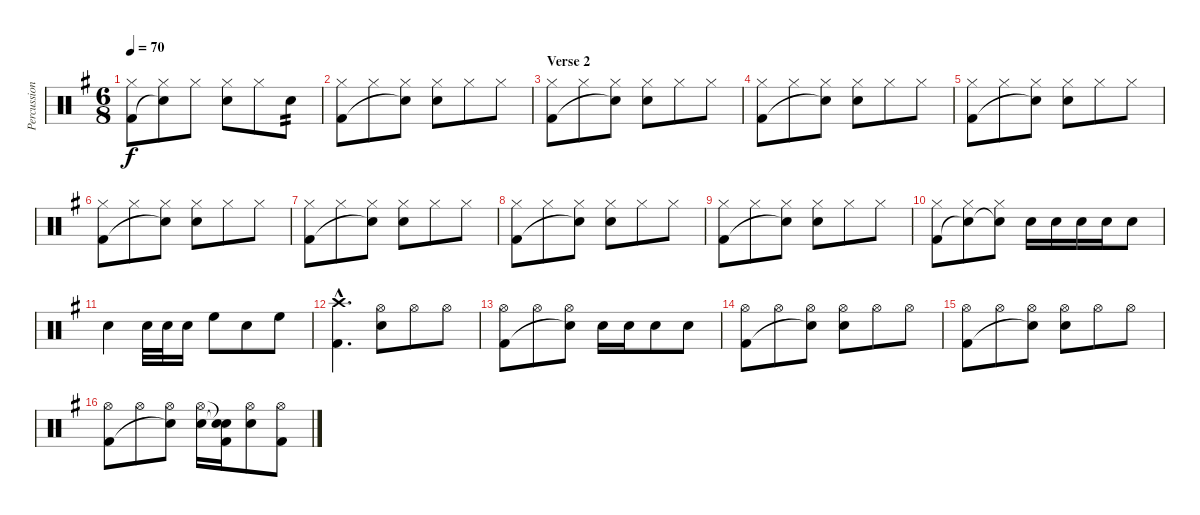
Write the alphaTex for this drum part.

\track ("Percussion" "Percussion") {instrument percussion}
\staff {score}
\articulation defaults
\ts (6 8)
\tempo 70
\clef neutral
\ks g
("Hi-Hat (closed)" "Kick (hit) 2").8{dy f} ("Hi-Hat (closed)" "Snare (hit)"{t}).8 "Hi-Hat (closed)".8 ("Hi-Hat (closed)" "Snare (hit) 2").8 "Hi-Hat (closed)".8 "Snare (hit) 2".8{tp 2} |
("Hi-Hat (closed)" "Kick (hit) 2").8 "Hi-Hat (closed)".8 ("Hi-Hat (closed)" "Snare (hit)"{t}).8 ("Hi-Hat (closed)" "Snare (hit) 2").8 "Hi-Hat (closed)".8 "Hi-Hat (closed)".8 |
\section ("" "Verse 2")
("Hi-Hat (closed)" "Kick (hit) 2").8 "Hi-Hat (closed)".8 ("Hi-Hat (closed)" "Snare (hit)"{t}).8 ("Hi-Hat (closed)" "Snare (hit) 2").8 "Hi-Hat (closed)".8 "Hi-Hat (closed)".8 |
("Hi-Hat (closed)" "Kick (hit) 2").8 "Hi-Hat (closed)".8 ("Hi-Hat (closed)" "Snare (hit)"{t}).8 ("Hi-Hat (closed)" "Snare (hit) 2").8 "Hi-Hat (closed)".8 "Hi-Hat (closed)".8 |
("Hi-Hat (closed)" "Kick (hit) 2").8 "Hi-Hat (closed)".8 ("Hi-Hat (closed)" "Snare (hit)"{t}).8 ("Hi-Hat (closed)" "Snare (hit) 2").8 "Hi-Hat (closed)".8 "Hi-Hat (closed)".8 |
("Hi-Hat (closed)" "Kick (hit) 2").8 "Hi-Hat (closed)".8 ("Hi-Hat (closed)" "Snare (hit)"{t}).8 ("Hi-Hat (closed)" "Snare (hit) 2").8 "Hi-Hat (closed)".8 "Hi-Hat (closed)".8 |
("Hi-Hat (closed)" "Kick (hit) 2").8 "Hi-Hat (closed)".8 ("Hi-Hat (closed)" "Snare (hit)"{t}).8 ("Hi-Hat (closed)" "Snare (hit) 2").8 "Hi-Hat (closed)".8 "Hi-Hat (closed)".8 |
("Hi-Hat (closed)" "Kick (hit) 2").8 "Hi-Hat (closed)".8 ("Hi-Hat (closed)" "Snare (hit)"{t}).8 ("Hi-Hat (closed)" "Snare (hit) 2").8 "Hi-Hat (closed)".8 "Hi-Hat (closed)".8 |
("Hi-Hat (closed)" "Kick (hit) 2").8 "Hi-Hat (closed)".8 ("Hi-Hat (closed)" "Snare (hit)"{t}).8 ("Hi-Hat (closed)" "Snare (hit) 2").8 "Hi-Hat (closed)".8 "Hi-Hat (closed)".8 |
("Hi-Hat (closed)" "Kick (hit) 2").8 ("Hi-Hat (closed)" "Snare (hit)"{t}).8 ("Hi-Hat (closed)" "Snare (hit)"{t}).8 "Snare (hit) 2".16 "Snare (hit) 2".16 "Snare (hit) 2".16 "Snare (hit) 2".16 "Snare (hit) 2".8 |
"Snare (hit) 2".4 "Snare (hit) 2".32 "Snare (hit) 2".32 "Snare (hit) 2".16 "High Floor Tom (hit)".8 "Snare (hit) 2".8 "High Floor Tom (hit)".8 |
("Crash high (hit)"{hac} "Kick (hit) 2"{hac}).4{d} ("Hi-Hat (open)" "Snare (hit) 2").8 "Hi-Hat (open)".8 "Hi-Hat (open)".8 |
("Hi-Hat (open)" "Kick (hit) 2").8 "Hi-Hat (open)".8 ("Hi-Hat (open)" "Snare (hit)"{t}).8 "Snare (hit) 2".16 "Snare (hit) 2".16 "Snare (hit) 2".8 "Snare (hit) 2".8 |
("Hi-Hat (open)" "Kick (hit) 2").8 "Hi-Hat (open)".8 ("Hi-Hat (open)" "Snare (hit)"{t}).8 ("Hi-Hat (open)" "Snare (hit) 2").8 "Hi-Hat (open)".8 "Hi-Hat (open)".8 |
("Hi-Hat (open)" "Kick (hit) 2").8 "Hi-Hat (open)".8 ("Hi-Hat (open)" "Snare (hit)"{t}).8 ("Hi-Hat (open)" "Snare (hit) 2").8 "Hi-Hat (open)".8 "Hi-Hat (open)".8 |
("Hi-Hat (open)" "Kick (hit) 2").8 "Hi-Hat (open)".8 ("Hi-Hat (open)" "Snare (hit)"{t}).8 ("Hi-Hat (open)" "Snare (hit) 2").16 ("Snare (hit)"{t} "Snare (hit)"{t} "Kick (hit) 2").16 ("Hi-Hat (open)" "Snare (hit) 2").8 ("Hi-Hat (open)" "Kick (hit) 2").8
